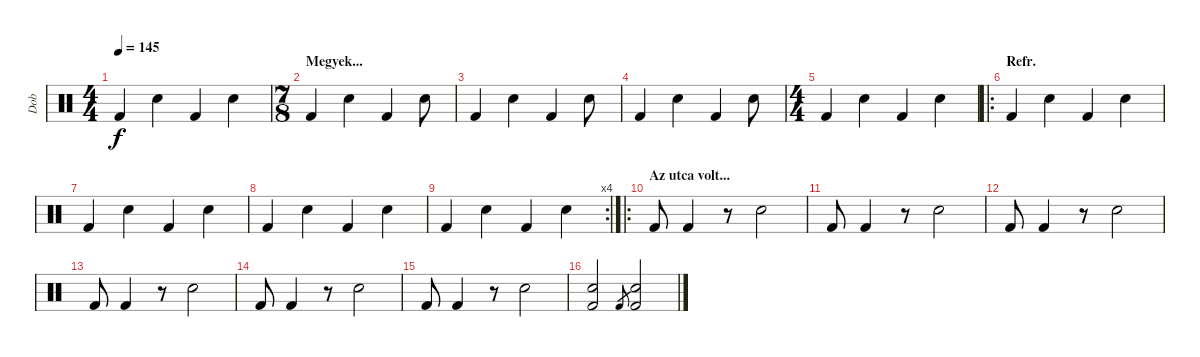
\track ("Dob" "Dob") {instrument percussion}
\staff {score}
\articulation defaults
\ts (4 4)
\tempo 145
\clef neutral
\ks c "Kick (hit) 2".4{dy f} "Electric Snare (hit)".4 "Kick (hit) 2".4 "Electric Snare (hit)".4
|
\ts (7 8)
\section ("" "Megyek...")
"Kick (hit) 2".4 "Electric Snare (hit)".4 "Kick (hit) 2".4 "Electric Snare (hit)".8 |
"Kick (hit) 2".4 "Electric Snare (hit)".4 "Kick (hit) 2".4 "Electric Snare (hit)".8 |
"Kick (hit) 2".4 "Electric Snare (hit)".4 "Kick (hit) 2".4 "Electric Snare (hit)".8 |
\ts (4 4)
"Kick (hit) 2".4 "Electric Snare (hit)".4 "Kick (hit) 2".4 "Electric Snare (hit)".4 |
\ro
\section ("" "Refr.")
"Kick (hit) 2".4 "Electric Snare (hit)".4 "Kick (hit) 2".4 "Electric Snare (hit)".4 |
"Kick (hit) 2".4 "Electric Snare (hit)".4 "Kick (hit) 2".4 "Electric Snare (hit)".4 |
"Kick (hit) 2".4 "Electric Snare (hit)".4 "Kick (hit) 2".4 "Electric Snare (hit)".4 |
\rc 4 "Kick (hit) 2".4 "Electric Snare (hit)".4 "Kick (hit) 2".4 "Electric Snare (hit)".4
|
\ro
\section ("" "Az utca volt...")
"Kick (hit) 2".8 "Kick (hit) 2".4 r.8 "Electric Snare (hit)".2 |
"Kick (hit) 2".8 "Kick (hit) 2".4 r.8 "Electric Snare (hit)".2 |
"Kick (hit) 2".8 "Kick (hit) 2".4 r.8 "Electric Snare (hit)".2 |
"Kick (hit) 2".8 "Kick (hit) 2".4 r.8 "Electric Snare (hit)".2 |
"Kick (hit) 2".8 "Kick (hit) 2".4 r.8 "Electric Snare (hit)".2 |
"Kick (hit) 2".8 "Kick (hit) 2".4 r.8 "Electric Snare (hit)".2 |
("Electric Snare (hit)" "Kick (hit) 2").2 "Kick (hit) 2".8{gr} ("Electric Snare (hit)" "Kick (hit) 2").2
